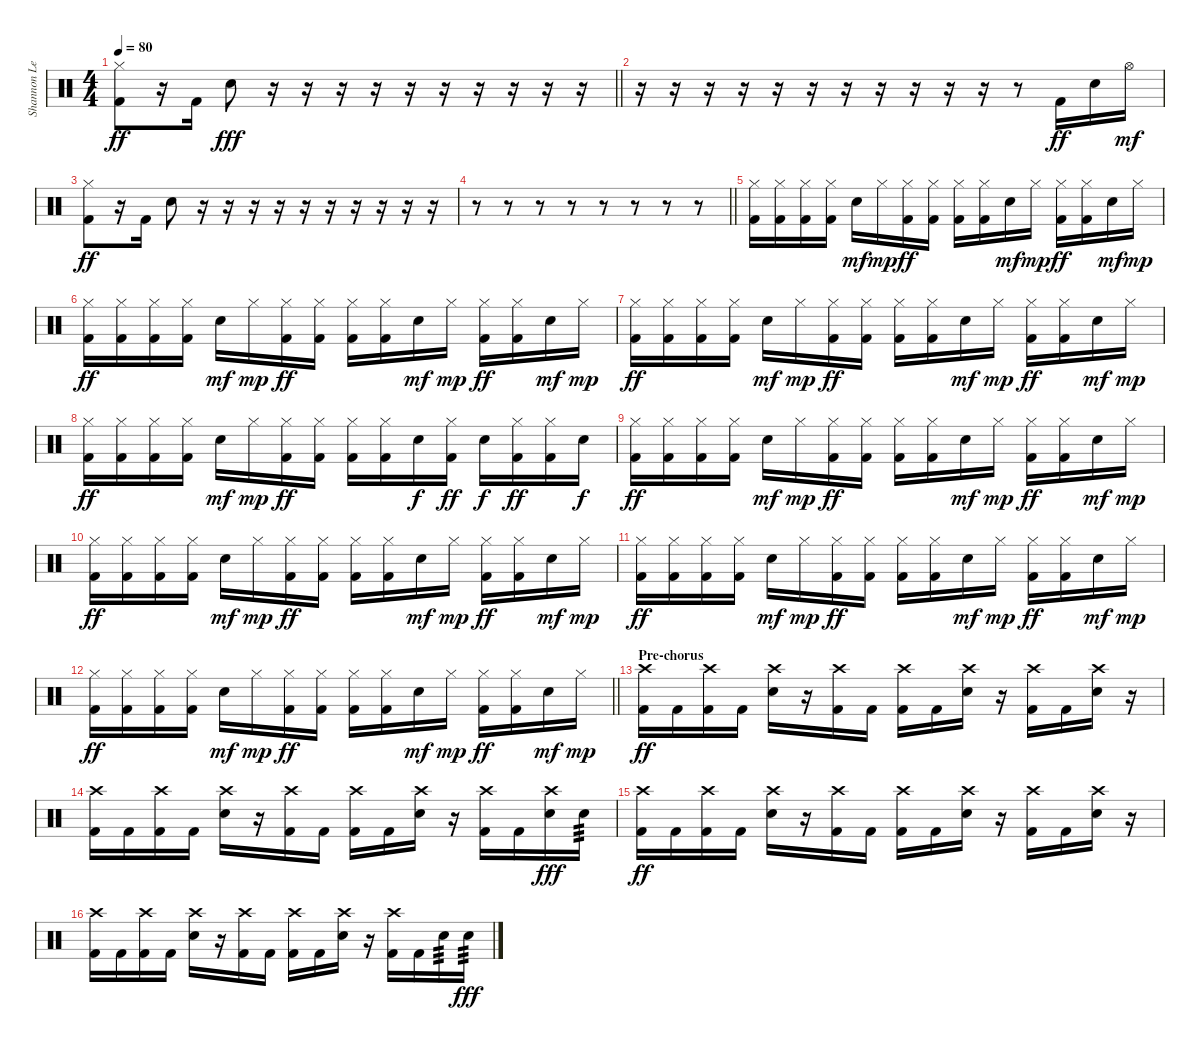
\track ("Shannon Leto (Drums)" "Shannon Le") {instrument percussion}
\staff {score}
\articulation defaults
\ts (4 4)
\tempo 80
\clef neutral
\barLineRight lightlight
\ks c
("Hi-Hat (closed)" "Kick (hit) 2").8{dy ff} r.16 "Kick (hit) 2".16 "Snare (hit) 2".8{dy fff} r.16 r.16 r.16 r.16 r.16 r.16 r.16 r.16 r.16 r.16 |
r.16 r.16 r.16 r.16 r.16 r.16 r.16 r.16 r.16 r.16 r.16 r.8 "Kick (hit) 2".16{dy ff} "Snare (hit) 2".16 "Hi-Hat (open)".16{dy mf} |
("Hi-Hat (closed)" "Kick (hit) 2").8{dy ff} r.16 "Kick (hit) 2".16 "Snare (hit) 2".8 r.16 r.16 r.16 r.16 r.16 r.16 r.16 r.16 r.16 r.16 |
\barLineRight lightlight
r.8 r.8 r.8 r.8 r.8 r.8 r.8 r.8 |
\section ("" "")
("Hi-Hat (closed)" "Kick (hit) 2").16 ("Hi-Hat (closed)" "Kick (hit) 2").16 ("Hi-Hat (closed)" "Kick (hit) 2").16 ("Hi-Hat (closed)" "Kick (hit) 2").16 "Snare (hit) 2".16{dy mf} "Hi-Hat (closed)".16{dy mp} ("Hi-Hat (closed)" "Kick (hit) 2").16{dy ff} ("Hi-Hat (closed)" "Kick (hit) 2").16 ("Hi-Hat (closed)" "Kick (hit) 2").16 ("Hi-Hat (closed)" "Kick (hit) 2").16 "Snare (hit) 2".16{dy mf} "Hi-Hat (closed)".16{dy mp} ("Hi-Hat (closed)" "Kick (hit) 2").16{dy ff} ("Hi-Hat (closed)" "Kick (hit) 2").16 "Snare (hit) 2".16{dy mf} "Hi-Hat (closed)".16{dy mp} |
("Hi-Hat (closed)" "Kick (hit) 2").16{dy ff} ("Hi-Hat (closed)" "Kick (hit) 2").16 ("Hi-Hat (closed)" "Kick (hit) 2").16 ("Hi-Hat (closed)" "Kick (hit) 2").16 "Snare (hit) 2".16{dy mf} "Hi-Hat (closed)".16{dy mp} ("Hi-Hat (closed)" "Kick (hit) 2").16{dy ff} ("Hi-Hat (closed)" "Kick (hit) 2").16 ("Hi-Hat (closed)" "Kick (hit) 2").16 ("Hi-Hat (closed)" "Kick (hit) 2").16 "Snare (hit) 2".16{dy mf} "Hi-Hat (closed)".16{dy mp} ("Hi-Hat (closed)" "Kick (hit) 2").16{dy ff} ("Hi-Hat (closed)" "Kick (hit) 2").16 "Snare (hit) 2".16{dy mf} "Hi-Hat (closed)".16{dy mp} |
("Hi-Hat (closed)" "Kick (hit) 2").16{dy ff} ("Hi-Hat (closed)" "Kick (hit) 2").16 ("Hi-Hat (closed)" "Kick (hit) 2").16 ("Hi-Hat (closed)" "Kick (hit) 2").16 "Snare (hit) 2".16{dy mf} "Hi-Hat (closed)".16{dy mp} ("Hi-Hat (closed)" "Kick (hit) 2").16{dy ff} ("Hi-Hat (closed)" "Kick (hit) 2").16 ("Hi-Hat (closed)" "Kick (hit) 2").16 ("Hi-Hat (closed)" "Kick (hit) 2").16 "Snare (hit) 2".16{dy mf} "Hi-Hat (closed)".16{dy mp} ("Hi-Hat (closed)" "Kick (hit) 2").16{dy ff} ("Hi-Hat (closed)" "Kick (hit) 2").16 "Snare (hit) 2".16{dy mf} "Hi-Hat (closed)".16{dy mp} |
("Hi-Hat (closed)" "Kick (hit) 2").16{dy ff} ("Hi-Hat (closed)" "Kick (hit) 2").16 ("Hi-Hat (closed)" "Kick (hit) 2").16 ("Hi-Hat (closed)" "Kick (hit) 2").16 "Snare (hit) 2".16{dy mf} "Hi-Hat (closed)".16{dy mp} ("Hi-Hat (closed)" "Kick (hit) 2").16{dy ff} ("Hi-Hat (closed)" "Kick (hit) 2").16 ("Hi-Hat (closed)" "Kick (hit) 2").16 ("Hi-Hat (closed)" "Kick (hit) 2").16 "Snare (hit) 2".16{dy f} ("Hi-Hat (closed)" "Kick (hit) 2").16{dy ff} "Snare (hit) 2".16{dy f} ("Hi-Hat (closed)" "Kick (hit) 2").16{dy ff} ("Hi-Hat (closed)" "Kick (hit) 2").16 "Snare (hit) 2".16{dy f} |
("Hi-Hat (closed)" "Kick (hit) 2").16{dy ff} ("Hi-Hat (closed)" "Kick (hit) 2").16 ("Hi-Hat (closed)" "Kick (hit) 2").16 ("Hi-Hat (closed)" "Kick (hit) 2").16 "Snare (hit) 2".16{dy mf} "Hi-Hat (closed)".16{dy mp} ("Hi-Hat (closed)" "Kick (hit) 2").16{dy ff} ("Hi-Hat (closed)" "Kick (hit) 2").16 ("Hi-Hat (closed)" "Kick (hit) 2").16 ("Hi-Hat (closed)" "Kick (hit) 2").16 "Snare (hit) 2".16{dy mf} "Hi-Hat (closed)".16{dy mp} ("Hi-Hat (closed)" "Kick (hit) 2").16{dy ff} ("Hi-Hat (closed)" "Kick (hit) 2").16 "Snare (hit) 2".16{dy mf} "Hi-Hat (closed)".16{dy mp} |
("Hi-Hat (closed)" "Kick (hit) 2").16{dy ff} ("Hi-Hat (closed)" "Kick (hit) 2").16 ("Hi-Hat (closed)" "Kick (hit) 2").16 ("Hi-Hat (closed)" "Kick (hit) 2").16 "Snare (hit) 2".16{dy mf} "Hi-Hat (closed)".16{dy mp} ("Hi-Hat (closed)" "Kick (hit) 2").16{dy ff} ("Hi-Hat (closed)" "Kick (hit) 2").16 ("Hi-Hat (closed)" "Kick (hit) 2").16 ("Hi-Hat (closed)" "Kick (hit) 2").16 "Snare (hit) 2".16{dy mf} "Hi-Hat (closed)".16{dy mp} ("Hi-Hat (closed)" "Kick (hit) 2").16{dy ff} ("Hi-Hat (closed)" "Kick (hit) 2").16 "Snare (hit) 2".16{dy mf} "Hi-Hat (closed)".16{dy mp} |
("Hi-Hat (closed)" "Kick (hit) 2").16{dy ff} ("Hi-Hat (closed)" "Kick (hit) 2").16 ("Hi-Hat (closed)" "Kick (hit) 2").16 ("Hi-Hat (closed)" "Kick (hit) 2").16 "Snare (hit) 2".16{dy mf} "Hi-Hat (closed)".16{dy mp} ("Hi-Hat (closed)" "Kick (hit) 2").16{dy ff} ("Hi-Hat (closed)" "Kick (hit) 2").16 ("Hi-Hat (closed)" "Kick (hit) 2").16 ("Hi-Hat (closed)" "Kick (hit) 2").16 "Snare (hit) 2".16{dy mf} "Hi-Hat (closed)".16{dy mp} ("Hi-Hat (closed)" "Kick (hit) 2").16{dy ff} ("Hi-Hat (closed)" "Kick (hit) 2").16 "Snare (hit) 2".16{dy mf} "Hi-Hat (closed)".16{dy mp} |
\barLineRight lightlight
("Hi-Hat (closed)" "Kick (hit) 2").16{dy ff} ("Hi-Hat (closed)" "Kick (hit) 2").16 ("Hi-Hat (closed)" "Kick (hit) 2").16 ("Hi-Hat (closed)" "Kick (hit) 2").16 "Snare (hit) 2".16{dy mf} "Hi-Hat (closed)".16{dy mp} ("Hi-Hat (closed)" "Kick (hit) 2").16{dy ff} ("Hi-Hat (closed)" "Kick (hit) 2").16 ("Hi-Hat (closed)" "Kick (hit) 2").16 ("Hi-Hat (closed)" "Kick (hit) 2").16 "Snare (hit) 2".16{dy mf} "Hi-Hat (closed)".16{dy mp} ("Hi-Hat (closed)" "Kick (hit) 2").16{dy ff} ("Hi-Hat (closed)" "Kick (hit) 2").16 "Snare (hit) 2".16{dy mf} "Hi-Hat (closed)".16{dy mp} |
\section ("" "Pre-chorus")
("Crash high (hit)" "Kick (hit) 2").16{dy ff} "Kick (hit) 2".16 ("Crash high (hit)" "Kick (hit) 2").16 "Kick (hit) 2".16 ("Crash high (hit)" "Snare (hit) 2").16 r.16 ("Crash high (hit)" "Kick (hit) 2").16 "Kick (hit) 2".16 ("Crash high (hit)" "Kick (hit) 2").16 "Kick (hit) 2".16 ("Crash high (hit)" "Snare (hit) 2").16 r.16 ("Crash high (hit)" "Kick (hit) 2").16 "Kick (hit) 2".16 ("Crash high (hit)" "Snare (hit) 2").16 r.16 |
("Crash high (hit)" "Kick (hit) 2").16 "Kick (hit) 2".16 ("Crash high (hit)" "Kick (hit) 2").16 "Kick (hit) 2".16 ("Crash high (hit)" "Snare (hit) 2").16 r.16 ("Crash high (hit)" "Kick (hit) 2").16 "Kick (hit) 2".16 ("Crash high (hit)" "Kick (hit) 2").16 "Kick (hit) 2".16 ("Crash high (hit)" "Snare (hit) 2").16 r.16 ("Crash high (hit)" "Kick (hit) 2").16 "Kick (hit) 2".16 ("Crash high (hit)" "Snare (hit) 2").16{dy fff} "Snare (hit) 2".16{tp 3} |
("Crash high (hit)" "Kick (hit) 2").16{dy ff} "Kick (hit) 2".16 ("Crash high (hit)" "Kick (hit) 2").16 "Kick (hit) 2".16 ("Crash high (hit)" "Snare (hit) 2").16 r.16 ("Crash high (hit)" "Kick (hit) 2").16 "Kick (hit) 2".16 ("Crash high (hit)" "Kick (hit) 2").16 "Kick (hit) 2".16 ("Crash high (hit)" "Snare (hit) 2").16 r.16 ("Crash high (hit)" "Kick (hit) 2").16 "Kick (hit) 2".16 ("Crash high (hit)" "Snare (hit) 2").16 r.16 |
("Crash high (hit)" "Kick (hit) 2").16 "Kick (hit) 2".16 ("Crash high (hit)" "Kick (hit) 2").16 "Kick (hit) 2".16 ("Crash high (hit)" "Snare (hit) 2").16 r.16 ("Crash high (hit)" "Kick (hit) 2").16 "Kick (hit) 2".16 ("Crash high (hit)" "Kick (hit) 2").16 "Kick (hit) 2".16 ("Crash high (hit)" "Snare (hit) 2").16 r.16 ("Crash high (hit)" "Kick (hit) 2").16 "Kick (hit) 2".16 "Snare (hit) 2".16{tp 3} "Snare (hit) 2".16{tp 3 dy fff}
